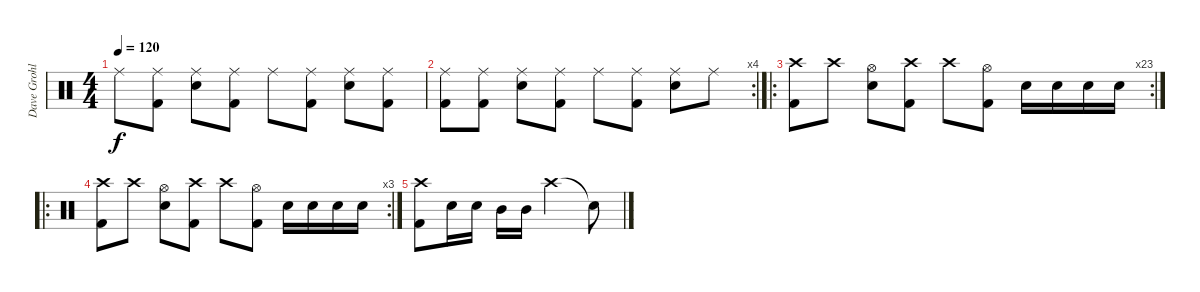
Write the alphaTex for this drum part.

\track ("Dave Grohl" "Dave Grohl") {instrument percussion}
\staff {score}
\articulation defaults
\ts (4 4)
\tempo 120
\clef neutral
\ks c "Ride (middle)".8{dy f}
("Ride (middle)" "Kick (hit) 2").8 ("Ride (middle)" "Electric Snare (hit)").8 ("Ride (middle)" "Kick (hit) 2").8 "Ride (middle)".8 ("Ride (middle)" "Kick (hit) 2").8 ("Ride (middle)" "Electric Snare (hit)").8 ("Ride (middle)" "Kick (hit) 2").8 |
\rc 4
("Ride (middle)" "Kick (hit) 2").8 ("Ride (middle)" "Kick (hit) 2").8 ("Ride (middle)" "Electric Snare (hit)").8 ("Ride (middle)" "Kick (hit) 2").8 "Ride (middle)".8 ("Ride (middle)" "Kick (hit) 2").8 ("Ride (middle)" "Electric Snare (hit)").8 "Ride (middle)".8 |
\ro
\rc 23
("Crash high (hit)" "Kick (hit) 2").8 "Crash high (hit)"{x}.8 ("Hi-Hat (open)" "Electric Snare (hit)").8 ("Crash high (hit)" "Kick (hit) 2").8 "Crash high (hit)"{x}.8 ("Hi-Hat (open)" "Kick (hit) 2").8 "Electric Snare (hit)".16 "Electric Snare (hit)".16 "Electric Snare (hit)".16 "Electric Snare (hit)".16 |
\ro
\rc 3
("Crash high (hit)" "Kick (hit) 2").8 "Crash high (hit)"{x}.8 ("Hi-Hat (open)" "Electric Snare (hit)").8 ("Crash high (hit)" "Kick (hit) 2").8 "Crash high (hit)"{x}.8 ("Hi-Hat (open)" "Kick (hit) 2").8 "Electric Snare (hit)".16 "Electric Snare (hit)".16 "Electric Snare (hit)".16 "Snare (hit)".16 |
("Crash high (hit)" "Kick (hit) 2").8 "Electric Snare (hit)".16 "Electric Snare (hit)".16 "Mid Tom (hit)".16 "Mid Tom (hit)".16 "Crash high (hit)".2 "Snare (hit)"{t}.8
